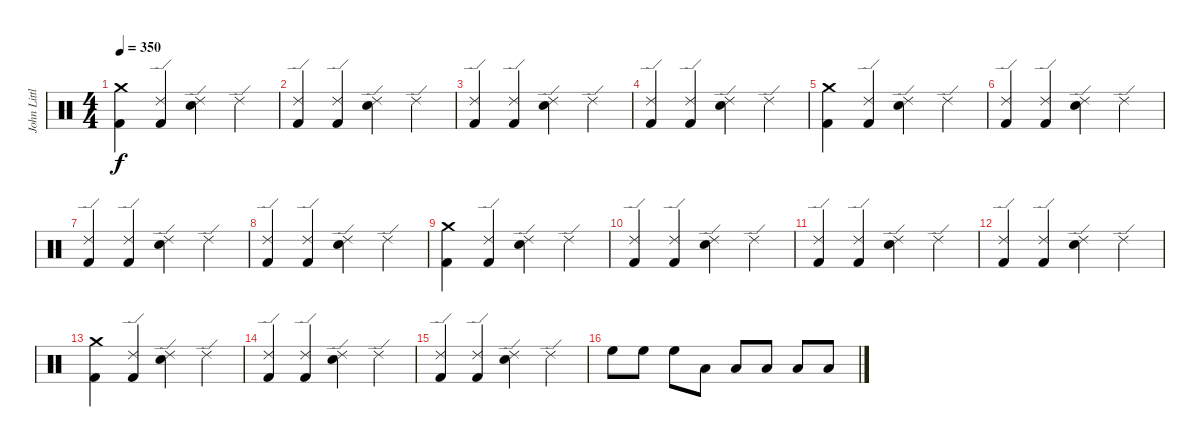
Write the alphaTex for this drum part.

\track ("John Littler - Drums" "John Littl") {instrument percussion}
\staff {score}
\articulation defaults
\ts (4 4)
\tempo 350
\clef neutral
\ks c
("Crash medium (hit)" "Kick (hit) 2").4{dy f} ("Ride (edge) 2" "Kick (hit) 2").4 ("Ride (edge) 2" "Snare (hit) 2").4 "Ride (edge) 2".4 |
("Ride (edge) 2" "Kick (hit) 2").4 ("Ride (edge) 2" "Kick (hit) 2").4 ("Ride (edge) 2" "Snare (hit) 2").4 "Ride (edge) 2".4 |
("Ride (edge) 2" "Kick (hit) 2").4 ("Ride (edge) 2" "Kick (hit) 2").4 ("Ride (edge) 2" "Snare (hit) 2").4 "Ride (edge) 2".4 |
("Ride (edge) 2" "Kick (hit) 2").4 ("Ride (edge) 2" "Kick (hit) 2").4 ("Ride (edge) 2" "Snare (hit) 2").4 "Ride (edge) 2".4 |
("Crash medium (hit)" "Kick (hit) 2").4 ("Ride (edge) 2" "Kick (hit) 2").4 ("Ride (edge) 2" "Snare (hit) 2").4 "Ride (edge) 2".4 |
("Ride (edge) 2" "Kick (hit) 2").4 ("Ride (edge) 2" "Kick (hit) 2").4 ("Ride (edge) 2" "Snare (hit) 2").4 "Ride (edge) 2".4 |
("Ride (edge) 2" "Kick (hit) 2").4 ("Ride (edge) 2" "Kick (hit) 2").4 ("Ride (edge) 2" "Snare (hit) 2").4 "Ride (edge) 2".4 |
("Ride (edge) 2" "Kick (hit) 2").4 ("Ride (edge) 2" "Kick (hit) 2").4 ("Ride (edge) 2" "Snare (hit) 2").4 "Ride (edge) 2".4 |
("Crash medium (hit)" "Kick (hit) 2").4 ("Ride (edge) 2" "Kick (hit) 2").4 ("Ride (edge) 2" "Snare (hit) 2").4 "Ride (edge) 2".4 |
("Ride (edge) 2" "Kick (hit) 2").4 ("Ride (edge) 2" "Kick (hit) 2").4 ("Ride (edge) 2" "Snare (hit) 2").4 "Ride (edge) 2".4 |
("Ride (edge) 2" "Kick (hit) 2").4 ("Ride (edge) 2" "Kick (hit) 2").4 ("Ride (edge) 2" "Snare (hit) 2").4 "Ride (edge) 2".4 |
("Ride (edge) 2" "Kick (hit) 2").4 ("Ride (edge) 2" "Kick (hit) 2").4 ("Ride (edge) 2" "Snare (hit) 2").4 "Ride (edge) 2".4 |
("Crash medium (hit)" "Kick (hit) 2").4 ("Ride (edge) 2" "Kick (hit) 2").4 ("Ride (edge) 2" "Snare (hit) 2").4 "Ride (edge) 2".4 |
("Ride (edge) 2" "Kick (hit) 2").4 ("Ride (edge) 2" "Kick (hit) 2").4 ("Ride (edge) 2" "Snare (hit) 2").4 "Ride (edge) 2".4 |
("Ride (edge) 2" "Kick (hit) 2").4 ("Ride (edge) 2" "Kick (hit) 2").4 ("Ride (edge) 2" "Snare (hit) 2").4 "Ride (edge) 2".4 |
"High Floor Tom (hit)".8 "High Floor Tom (hit)".8 "High Floor Tom (hit)".8 "Low Tom (hit)".8 "Low Tom (hit)".8 "Low Tom (hit)".8 "Low Floor Tom (hit)".8 "Low Floor Tom (hit)".8
